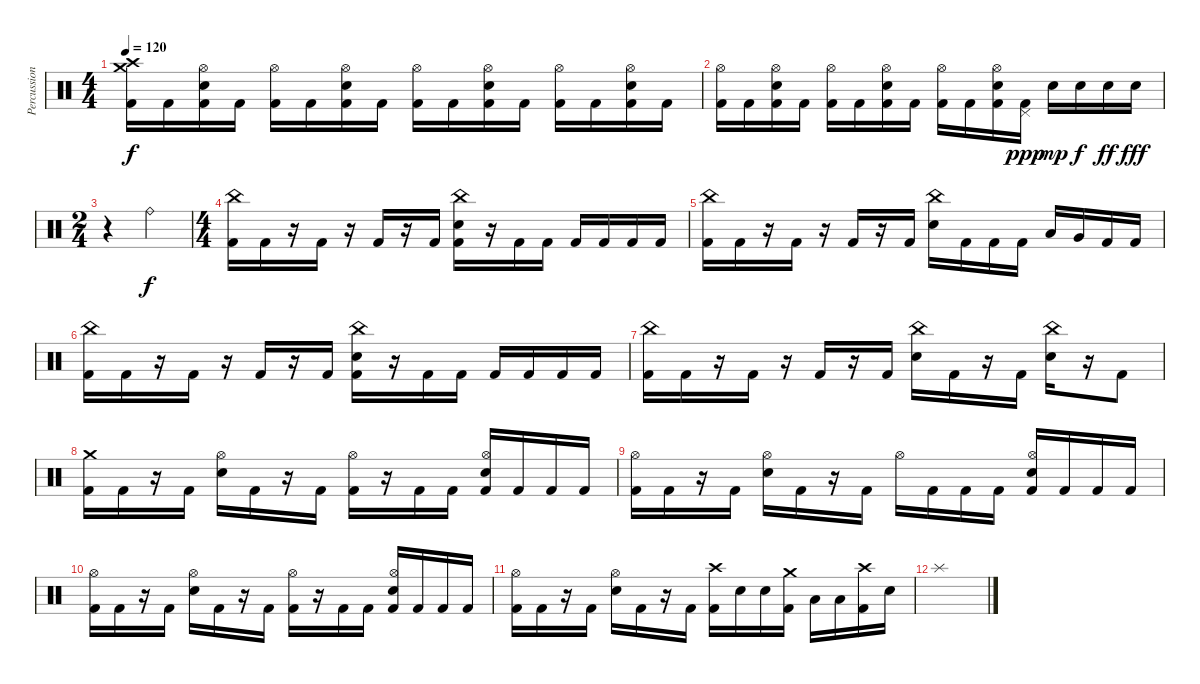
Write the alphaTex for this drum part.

\track ("Percussion" "Percussion") {instrument percussion}
\staff {score}
\articulation defaults
\ts (4 4)
\tempo 120
\clef neutral
\ks c
("Crash medium (hit)" "Crash high (hit)" "Kick (hit) 2").16{dy f} "Kick (hit) 2".16 ("Hi-Hat (open)" "Electric Snare (hit)" "Kick (hit) 2").16 "Kick (hit) 2".16 ("Hi-Hat (open)" "Kick (hit) 2").16 "Kick (hit) 2".16 ("Hi-Hat (open)" "Electric Snare (hit)" "Kick (hit) 2").16 "Kick (hit) 2".16 ("Hi-Hat (open)" "Kick (hit) 2").16 "Kick (hit) 2".16 ("Hi-Hat (open)" "Electric Snare (hit)" "Kick (hit) 2").16 "Kick (hit) 2".16 ("Hi-Hat (open)" "Kick (hit) 2").16 "Kick (hit) 2".16 ("Hi-Hat (open)" "Electric Snare (hit)" "Kick (hit) 2").16 "Kick (hit) 2".16 |
("Hi-Hat (open)" "Kick (hit) 2").16 "Kick (hit) 2".16 ("Hi-Hat (open)" "Electric Snare (hit)" "Kick (hit) 2").16 "Kick (hit) 2".16 ("Hi-Hat (open)" "Kick (hit) 2").16 "Kick (hit) 2".16 ("Hi-Hat (open)" "Electric Snare (hit)" "Kick (hit) 2").16 "Kick (hit) 2".16 ("Hi-Hat (open)" "Kick (hit) 2").16 "Kick (hit) 2".16 ("Hi-Hat (open)" "Electric Snare (hit)" "Kick (hit) 2").16 ("Pedal Hi-Hat (hit)" "Kick (hit) 2").16{dy ppp} "Electric Snare (hit)".16{dy mp} "Electric Snare (hit)".16{dy f} "Electric Snare (hit)".16{dy ff} "Electric Snare (hit)".16{dy fff} |
\ts (2 4)
r.4 "Ride (bell)".4{dy f} |
\ts (4 4)
("China (hit)" "Kick (hit) 2").16 "Kick (hit) 2".16 r.16 "Kick (hit) 2".16 r.16 "Kick (hit) 2".16 r.16 "Kick (hit) 2".16 ("China (hit)" "Electric Snare (hit)" "Kick (hit) 2").16 r.16 "Kick (hit) 2".16 "Kick (hit) 2".16 "Kick (hit) 2".16 "Kick (hit) 2".16 "Kick (hit) 2".16 "Kick (hit) 2".16 |
("China (hit)" "Kick (hit) 2").16 "Kick (hit) 2".16 r.16 "Kick (hit) 2".16 r.16 "Kick (hit) 2".16 r.16 "Kick (hit) 2".16 ("China (hit)" "Electric Snare (hit)").16 "Kick (hit) 2".16 "Kick (hit) 2".16 "Kick (hit) 2".16 "Low Tom (hit)".16 "Very Low Tom (hit)".16 "Kick (hit) 2".16 "Kick (hit) 2".16 |
("China (hit)" "Kick (hit) 2").16 "Kick (hit) 2".16 r.16 "Kick (hit) 2".16 r.16 "Kick (hit) 2".16 r.16 "Kick (hit) 2".16 ("China (hit)" "Electric Snare (hit)" "Kick (hit) 2").16 r.16 "Kick (hit) 2".16 "Kick (hit) 2".16 "Kick (hit) 2".16 "Kick (hit) 2".16 "Kick (hit) 2".16 "Kick (hit) 2".16 |
("China (hit)" "Kick (hit) 2").16 "Kick (hit) 2".16 r.16 "Kick (hit) 2".16 r.16 "Kick (hit) 2".16 r.16 "Kick (hit) 2".16 ("China (hit)" "Electric Snare (hit)").16 "Kick (hit) 2".16 r.16 "Kick (hit) 2".16 ("China (hit)" "Electric Snare (hit)").16 r.16 "Kick (hit) 2".8 |
("Crash medium (hit)" "Kick (hit) 2").16{volume 16} "Kick (hit) 2".16 r.16 "Kick (hit) 2".16 ("Hi-Hat (open)" "Electric Snare (hit)").16 "Kick (hit) 2".16 r.16 "Kick (hit) 2".16 ("Hi-Hat (open)" "Kick (hit) 2").16 r.16 "Kick (hit) 2".16 "Kick (hit) 2".16 ("Hi-Hat (open)" "Electric Snare (hit)" "Kick (hit) 2").16 "Kick (hit) 2".16 "Kick (hit) 2".16 "Kick (hit) 2".16 |
("Hi-Hat (open)" "Kick (hit) 2").16 "Kick (hit) 2".16 r.16 "Kick (hit) 2".16 ("Hi-Hat (open)" "Electric Snare (hit)").16 "Kick (hit) 2".16 r.16 "Kick (hit) 2".16 "Hi-Hat (open)".16 "Kick (hit) 2".16 "Kick (hit) 2".16 "Kick (hit) 2".16 ("Hi-Hat (open)" "Electric Snare (hit)" "Kick (hit) 2").16 "Kick (hit) 2".16 "Kick (hit) 2".16 "Kick (hit) 2".16 |
("Hi-Hat (open)" "Kick (hit) 2").16 "Kick (hit) 2".16 r.16 "Kick (hit) 2".16 ("Hi-Hat (open)" "Electric Snare (hit)").16 "Kick (hit) 2".16 r.16 "Kick (hit) 2".16 ("Hi-Hat (open)" "Kick (hit) 2").16 r.16 "Kick (hit) 2".16 "Kick (hit) 2".16 ("Hi-Hat (open)" "Electric Snare (hit)" "Kick (hit) 2").16 "Kick (hit) 2".16 "Kick (hit) 2".16 "Kick (hit) 2".16 |
("Hi-Hat (open)" "Kick (hit) 2").16 "Kick (hit) 2".16 r.16 "Kick (hit) 2".16 ("Hi-Hat (open)" "Electric Snare (hit)").16 "Kick (hit) 2".16 r.16 "Kick (hit) 2".16 ("Crash high (hit)" "Kick (hit) 2").16 "Electric Snare (hit)".16 "Electric Snare (hit)".16 ("Crash medium (hit)" "Kick (hit) 2").16 "Low Tom (hit)".16 "Low Tom (hit)".16 ("Crash high (hit)" "Kick (hit) 2").16 "Electric Snare (hit)".16 |
"Splash (hit)".1{volume 13}
